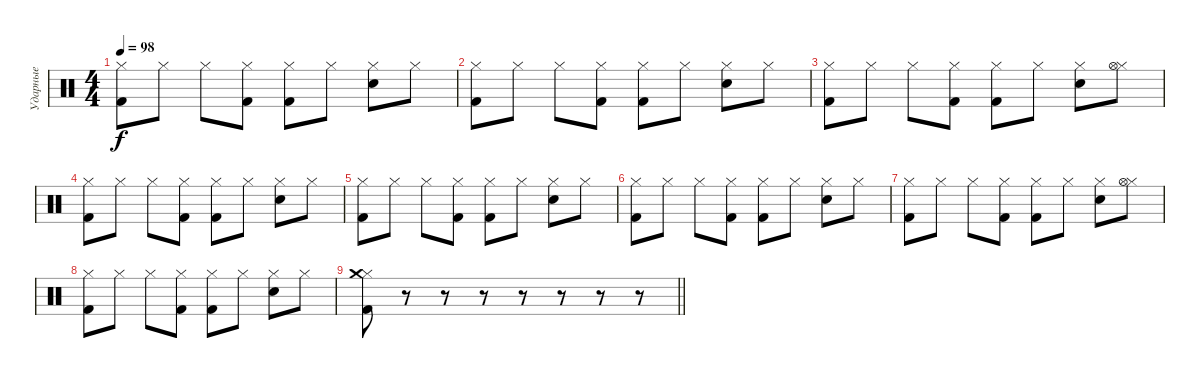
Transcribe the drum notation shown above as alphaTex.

\track ("Ударные" "Ударные") {instrument percussion}
\staff {score}
\articulation defaults
\ts (4 4)
\tempo 98
\clef neutral
\ks c
("Hi-Hat (closed)" "Kick (hit) 2").8{dy f} "Hi-Hat (closed)".8 "Hi-Hat (closed)".8 ("Hi-Hat (closed)" "Kick (hit) 2").8 ("Hi-Hat (closed)" "Kick (hit) 2").8 "Hi-Hat (closed)".8 ("Hi-Hat (closed)" "Snare (hit) 2").8 "Hi-Hat (closed)".8 |
("Hi-Hat (closed)" "Kick (hit) 2").8 "Hi-Hat (closed)".8 "Hi-Hat (closed)".8 ("Hi-Hat (closed)" "Kick (hit) 2").8 ("Hi-Hat (closed)" "Kick (hit) 2").8 "Hi-Hat (closed)".8 ("Hi-Hat (closed)" "Snare (hit) 2").8 "Hi-Hat (closed)".8 |
("Hi-Hat (closed)" "Kick (hit) 2").8 "Hi-Hat (closed)".8 "Hi-Hat (closed)".8 ("Hi-Hat (closed)" "Kick (hit) 2").8 ("Hi-Hat (closed)" "Kick (hit) 2").8 "Hi-Hat (closed)".8 ("Hi-Hat (closed)" "Snare (hit) 2").8 ("Hi-Hat (closed)" "Hi-Hat (open)").8 |
("Hi-Hat (closed)" "Kick (hit) 2").8 "Hi-Hat (closed)".8 "Hi-Hat (closed)".8 ("Hi-Hat (closed)" "Kick (hit) 2").8 ("Hi-Hat (closed)" "Kick (hit) 2").8 "Hi-Hat (closed)".8 ("Hi-Hat (closed)" "Snare (hit) 2").8 "Hi-Hat (closed)".8 |
("Hi-Hat (closed)" "Kick (hit) 2").8 "Hi-Hat (closed)".8 "Hi-Hat (closed)".8 ("Hi-Hat (closed)" "Kick (hit) 2").8 ("Hi-Hat (closed)" "Kick (hit) 2").8 "Hi-Hat (closed)".8 ("Hi-Hat (closed)" "Snare (hit) 2").8 "Hi-Hat (closed)".8 |
("Hi-Hat (closed)" "Kick (hit) 2").8 "Hi-Hat (closed)".8 "Hi-Hat (closed)".8 ("Hi-Hat (closed)" "Kick (hit) 2").8 ("Hi-Hat (closed)" "Kick (hit) 2").8 "Hi-Hat (closed)".8 ("Hi-Hat (closed)" "Snare (hit) 2").8 "Hi-Hat (closed)".8 |
("Hi-Hat (closed)" "Kick (hit) 2").8 "Hi-Hat (closed)".8 "Hi-Hat (closed)".8 ("Hi-Hat (closed)" "Kick (hit) 2").8 ("Hi-Hat (closed)" "Kick (hit) 2").8 "Hi-Hat (closed)".8 ("Hi-Hat (closed)" "Snare (hit) 2").8 ("Hi-Hat (closed)" "Hi-Hat (open)").8 |
("Hi-Hat (closed)" "Kick (hit) 2").8 "Hi-Hat (closed)".8 "Hi-Hat (closed)".8 ("Hi-Hat (closed)" "Kick (hit) 2").8 ("Hi-Hat (closed)" "Kick (hit) 2").8 "Hi-Hat (closed)".8 ("Hi-Hat (closed)" "Snare (hit) 2").8 "Hi-Hat (closed)".8 |
\barLineRight lightlight
("Hi-Hat (closed)" "Crash medium (hit)" "Kick (hit) 2").8 r.8 r.8 r.8 r.8 r.8 r.8 r.8
